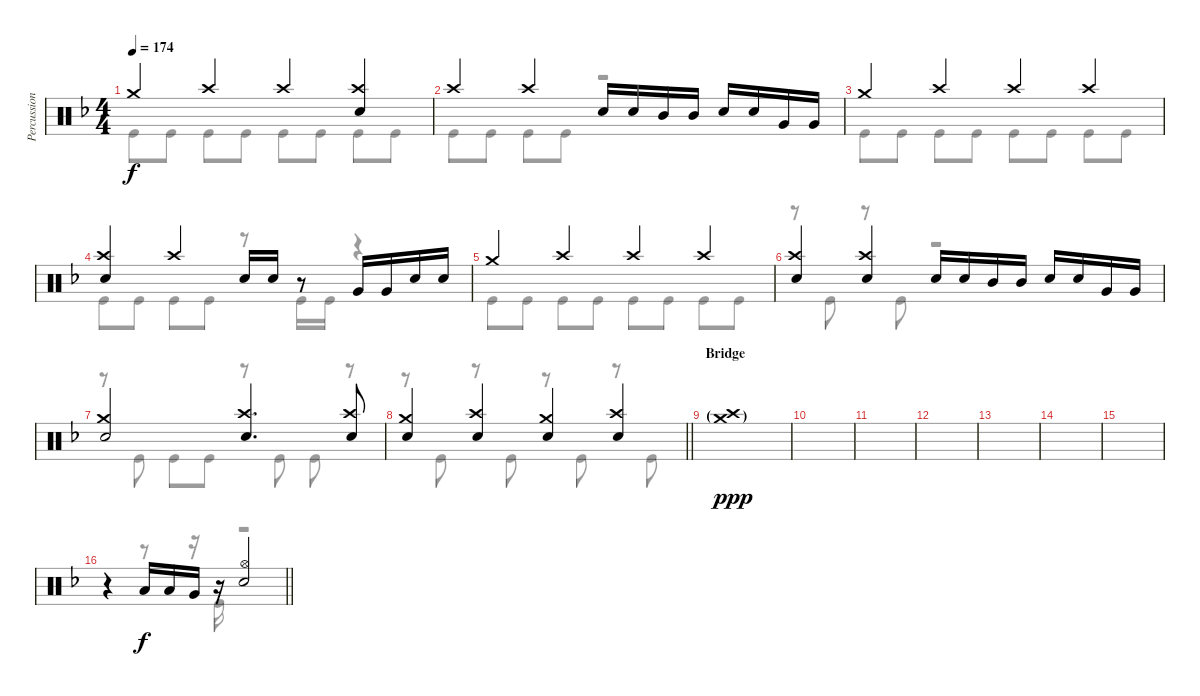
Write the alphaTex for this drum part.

\track ("Percussion" "Percussion") {instrument percussion}
\staff {score}
\articulation defaults
\voice
\ts (4 4)
\tempo 174
\clef neutral
\ks dminor "Crash medium (hit)".4{dy f} "Crash high (hit)".4 "Crash high (hit)".4
("Crash high (hit)" "Electric Snare (hit)").4 |
"Crash high (hit)".4 "Crash high (hit)".4 "Electric Snare (hit)".16 "Electric Snare (hit)".16 "Mid Tom (hit)".16 "Mid Tom (hit)".16 "Electric Snare (hit)".16 "Electric Snare (hit)".16 "Very Low Tom (hit)".16 "Very Low Tom (hit)".16 |
"Crash medium (hit)".4 "Crash high (hit)".4 "Crash high (hit)".4 "Crash high (hit)".4 |
("Crash high (hit)" "Electric Snare (hit)").4 "Crash high (hit)".4 "Electric Snare (hit)".16 "Electric Snare (hit)".16 r.8 "Very Low Tom (hit)".16 "Very Low Tom (hit)".16 "Electric Snare (hit)".16 "Electric Snare (hit)".16 |
"Crash medium (hit)".4 "Crash high (hit)".4 "Crash high (hit)".4 "Crash high (hit)".4 |
("Crash high (hit)" "Electric Snare (hit)").4 ("Crash high (hit)" "Electric Snare (hit)").4 "Electric Snare (hit)".16 "Electric Snare (hit)".16 "Mid Tom (hit)".16 "Mid Tom (hit)".16 "Electric Snare (hit)".16 "Electric Snare (hit)".16 "Very Low Tom (hit)".16 "Very Low Tom (hit)".16 |
("Crash medium (hit)" "Electric Snare (hit)").2 ("Crash high (hit)" "Electric Snare (hit)").4{d} ("Crash high (hit)" "Electric Snare (hit)").8 |
\barLineRight lightlight
("Crash medium (hit)" "Electric Snare (hit)").4 ("Crash high (hit)" "Electric Snare (hit)").4 ("Crash medium (hit)" "Electric Snare (hit)").4 ("Crash high (hit)" "Electric Snare (hit)").4 |
\section ("" "Bridge")
("Crash medium (hit)"{g} "Crash high (hit)"{g}).1{dy ppp} |
|
|
|
|
|
|
\barLineRight lightlight
r.4 "Low Tom (hit)".16{dy f} "Low Tom (hit)".16 "Very Low Tom (hit)".16 r.16 ("Hi-Hat (open)" "Electric Snare (hit)").2
\voice
\clef neutral
\ottava regular
\simile none
\ks dminor "Kick (hit)".8{dy f} "Kick (hit)".8 "Kick (hit)".8 "Kick (hit)".8 "Kick (hit)".8 "Kick (hit)".8 "Kick (hit)".8 "Kick (hit)".8
|
"Kick (hit)".8 "Kick (hit)".8 "Kick (hit)".8 "Kick (hit)".8 r.2 |
"Kick (hit)".8 "Kick (hit)".8 "Kick (hit)".8 "Kick (hit)".8 "Kick (hit)".8 "Kick (hit)".8 "Kick (hit)".8 "Kick (hit)".8 |
"Kick (hit)".8 "Kick (hit)".8 "Kick (hit)".8 "Kick (hit)".8 r.8 "Kick (hit)".16 "Kick (hit)".16 r.4 |
"Kick (hit)".8 "Kick (hit)".8 "Kick (hit)".8 "Kick (hit)".8 "Kick (hit)".8 "Kick (hit)".8 "Kick (hit)".8 "Kick (hit)".8 |
r.8 "Kick (hit)".8 r.8 "Kick (hit)".8 r.2 |
r.8 "Kick (hit)".8 "Kick (hit)".8 "Kick (hit)".8 r.8 "Kick (hit)".8 "Kick (hit)".8 r.8 |
\barLineRight lightlight
r.8 "Kick (hit)".8 r.8 "Kick (hit)".8 r.8 "Kick (hit)".8 r.8 "Kick (hit)".8 |
|
|
|
|
|
|
|
\barLineRight lightlight
r.4 r.8 r.16 "Kick (hit)".16 r.2
